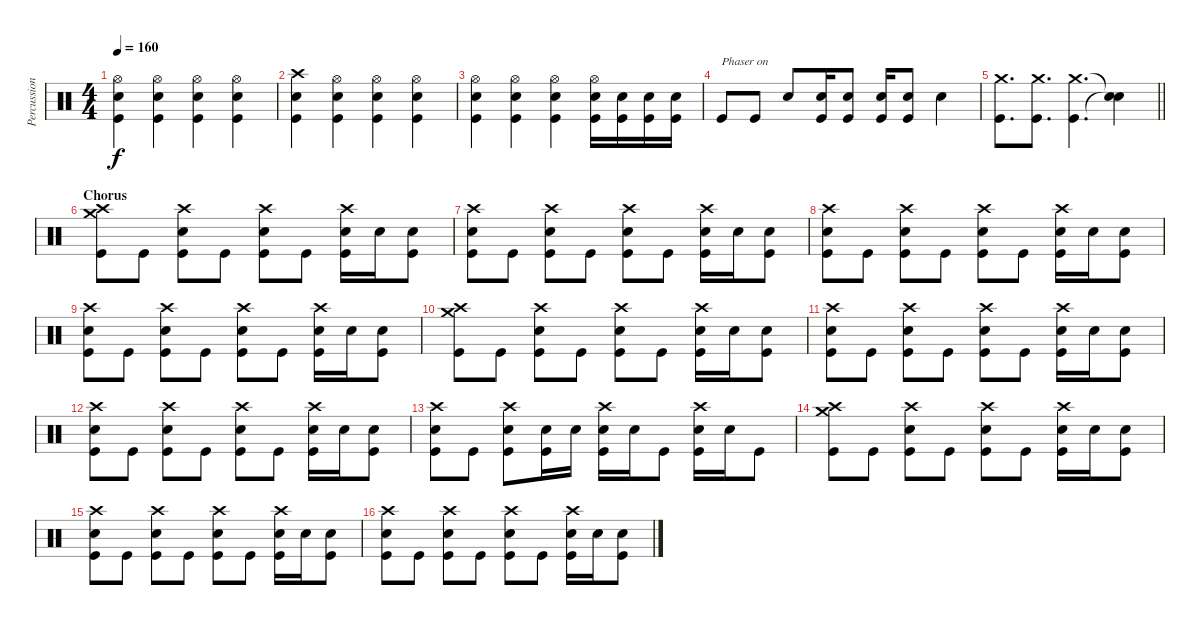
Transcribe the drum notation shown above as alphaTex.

\track ("Percussion" "Percussion") {instrument percussion}
\staff {score}
\articulation defaults
\ts (4 4)
\tempo 160
\clef neutral
\ks c
("Hi-Hat (open)" "Electric Snare (hit)" "Kick (hit)").4{dy f} ("Hi-Hat (open)" "Electric Snare (hit)" "Kick (hit)").4 ("Hi-Hat (open)" "Electric Snare (hit)" "Kick (hit)").4 ("Hi-Hat (open)" "Electric Snare (hit)" "Kick (hit)").4 |
("Crash high (hit)" "Electric Snare (hit)" "Kick (hit)").4 ("Hi-Hat (open)" "Electric Snare (hit)" "Kick (hit)").4 ("Hi-Hat (open)" "Electric Snare (hit)" "Kick (hit)").4 ("Hi-Hat (open)" "Electric Snare (hit)" "Kick (hit)").4 |
("Hi-Hat (open)" "Electric Snare (hit)" "Kick (hit)").4 ("Hi-Hat (open)" "Electric Snare (hit)" "Kick (hit)").4 ("Hi-Hat (open)" "Electric Snare (hit)" "Kick (hit)").4 ("Hi-Hat (open)" "Electric Snare (hit)" "Kick (hit)").16 ("Electric Snare (hit)" "Kick (hit)").16 ("Electric Snare (hit)" "Kick (hit)").16 ("Electric Snare (hit)" "Kick (hit)").16 |
"Kick (hit)".8{txt "Phaser on"} "Kick (hit)".8 "Electric Snare (hit)".8 ("Electric Snare (hit)" "Kick (hit)").16 ("Electric Snare (hit)" "Kick (hit)").8 ("Electric Snare (hit)" "Kick (hit)").16 ("Electric Snare (hit)" "Kick (hit)").8 "Electric Snare (hit)".4 |
\barLineRight lightlight
("Crash medium (hit)" "Kick (hit)").8{d} ("Crash medium (hit)" "Kick (hit)").8{d} ("Crash medium (hit)" "Kick (hit)").4{d} ("Snare (hit)"{t} "Snare (hit)"{t}).4 |
\section ("" "Chorus")
("Crash high (hit)" "Crash medium (hit)" "Kick (hit)").8 "Kick (hit)".8 ("Crash high (hit)" "Electric Snare (hit)" "Kick (hit)").8 "Kick (hit)".8 ("Crash high (hit)" "Electric Snare (hit)" "Kick (hit)").8 "Kick (hit)".8 ("Crash high (hit)" "Electric Snare (hit)" "Kick (hit)").16 "Electric Snare (hit)".16 ("Electric Snare (hit)" "Kick (hit)").8 |
("Crash high (hit)" "Electric Snare (hit)" "Kick (hit)").8 "Kick (hit)".8 ("Crash high (hit)" "Electric Snare (hit)" "Kick (hit)").8 "Kick (hit)".8 ("Crash high (hit)" "Electric Snare (hit)" "Kick (hit)").8 "Kick (hit)".8 ("Crash high (hit)" "Electric Snare (hit)" "Kick (hit)").16 "Electric Snare (hit)".16 ("Electric Snare (hit)" "Kick (hit)").8 |
("Crash high (hit)" "Electric Snare (hit)" "Kick (hit)").8 "Kick (hit)".8 ("Crash high (hit)" "Electric Snare (hit)" "Kick (hit)").8 "Kick (hit)".8 ("Crash high (hit)" "Electric Snare (hit)" "Kick (hit)").8 "Kick (hit)".8 ("Crash high (hit)" "Electric Snare (hit)" "Kick (hit)").16 "Electric Snare (hit)".16 ("Electric Snare (hit)" "Kick (hit)").8 |
("Crash high (hit)" "Electric Snare (hit)" "Kick (hit)").8 "Kick (hit)".8 ("Crash high (hit)" "Electric Snare (hit)" "Kick (hit)").8 "Kick (hit)".8 ("Crash high (hit)" "Electric Snare (hit)" "Kick (hit)").8 "Kick (hit)".8 ("Crash high (hit)" "Electric Snare (hit)" "Kick (hit)").16 "Electric Snare (hit)".16 ("Electric Snare (hit)" "Kick (hit)").8 |
("Crash high (hit)" "Crash medium (hit)" "Kick (hit)").8 "Kick (hit)".8 ("Crash high (hit)" "Electric Snare (hit)" "Kick (hit)").8 "Kick (hit)".8 ("Crash high (hit)" "Electric Snare (hit)" "Kick (hit)").8 "Kick (hit)".8 ("Crash high (hit)" "Electric Snare (hit)" "Kick (hit)").16 "Electric Snare (hit)".16 ("Electric Snare (hit)" "Kick (hit)").8 |
("Crash high (hit)" "Electric Snare (hit)" "Kick (hit)").8 "Kick (hit)".8 ("Crash high (hit)" "Electric Snare (hit)" "Kick (hit)").8 "Kick (hit)".8 ("Crash high (hit)" "Electric Snare (hit)" "Kick (hit)").8 "Kick (hit)".8 ("Crash high (hit)" "Electric Snare (hit)" "Kick (hit)").16 "Electric Snare (hit)".16 ("Electric Snare (hit)" "Kick (hit)").8 |
("Crash high (hit)" "Electric Snare (hit)" "Kick (hit)").8 "Kick (hit)".8 ("Crash high (hit)" "Electric Snare (hit)" "Kick (hit)").8 "Kick (hit)".8 ("Crash high (hit)" "Electric Snare (hit)" "Kick (hit)").8 "Kick (hit)".8 ("Crash high (hit)" "Electric Snare (hit)" "Kick (hit)").16 "Electric Snare (hit)".16 ("Electric Snare (hit)" "Kick (hit)").8 |
("Crash high (hit)" "Electric Snare (hit)" "Kick (hit)").8 "Kick (hit)".8 ("Crash high (hit)" "Electric Snare (hit)" "Kick (hit)").8 ("Electric Snare (hit)" "Kick (hit)").16 "Electric Snare (hit)".16 ("Crash high (hit)" "Electric Snare (hit)" "Kick (hit)").16 "Electric Snare (hit)".16 "Kick (hit)".8 ("Crash high (hit)" "Electric Snare (hit)" "Kick (hit)").16 "Electric Snare (hit)".16 "Kick (hit)".8 |
("Crash high (hit)" "Crash medium (hit)" "Kick (hit)").8 "Kick (hit)".8 ("Crash high (hit)" "Electric Snare (hit)" "Kick (hit)").8 "Kick (hit)".8 ("Crash high (hit)" "Electric Snare (hit)" "Kick (hit)").8 "Kick (hit)".8 ("Crash high (hit)" "Electric Snare (hit)" "Kick (hit)").16 "Electric Snare (hit)".16 ("Electric Snare (hit)" "Kick (hit)").8 |
("Crash high (hit)" "Electric Snare (hit)" "Kick (hit)").8 "Kick (hit)".8 ("Crash high (hit)" "Electric Snare (hit)" "Kick (hit)").8 "Kick (hit)".8 ("Crash high (hit)" "Electric Snare (hit)" "Kick (hit)").8 "Kick (hit)".8 ("Crash high (hit)" "Electric Snare (hit)" "Kick (hit)").16 "Electric Snare (hit)".16 ("Electric Snare (hit)" "Kick (hit)").8 |
("Crash high (hit)" "Electric Snare (hit)" "Kick (hit)").8 "Kick (hit)".8 ("Crash high (hit)" "Electric Snare (hit)" "Kick (hit)").8 "Kick (hit)".8 ("Crash high (hit)" "Electric Snare (hit)" "Kick (hit)").8 "Kick (hit)".8 ("Crash high (hit)" "Electric Snare (hit)" "Kick (hit)").16 "Electric Snare (hit)".16 ("Electric Snare (hit)" "Kick (hit)").8
